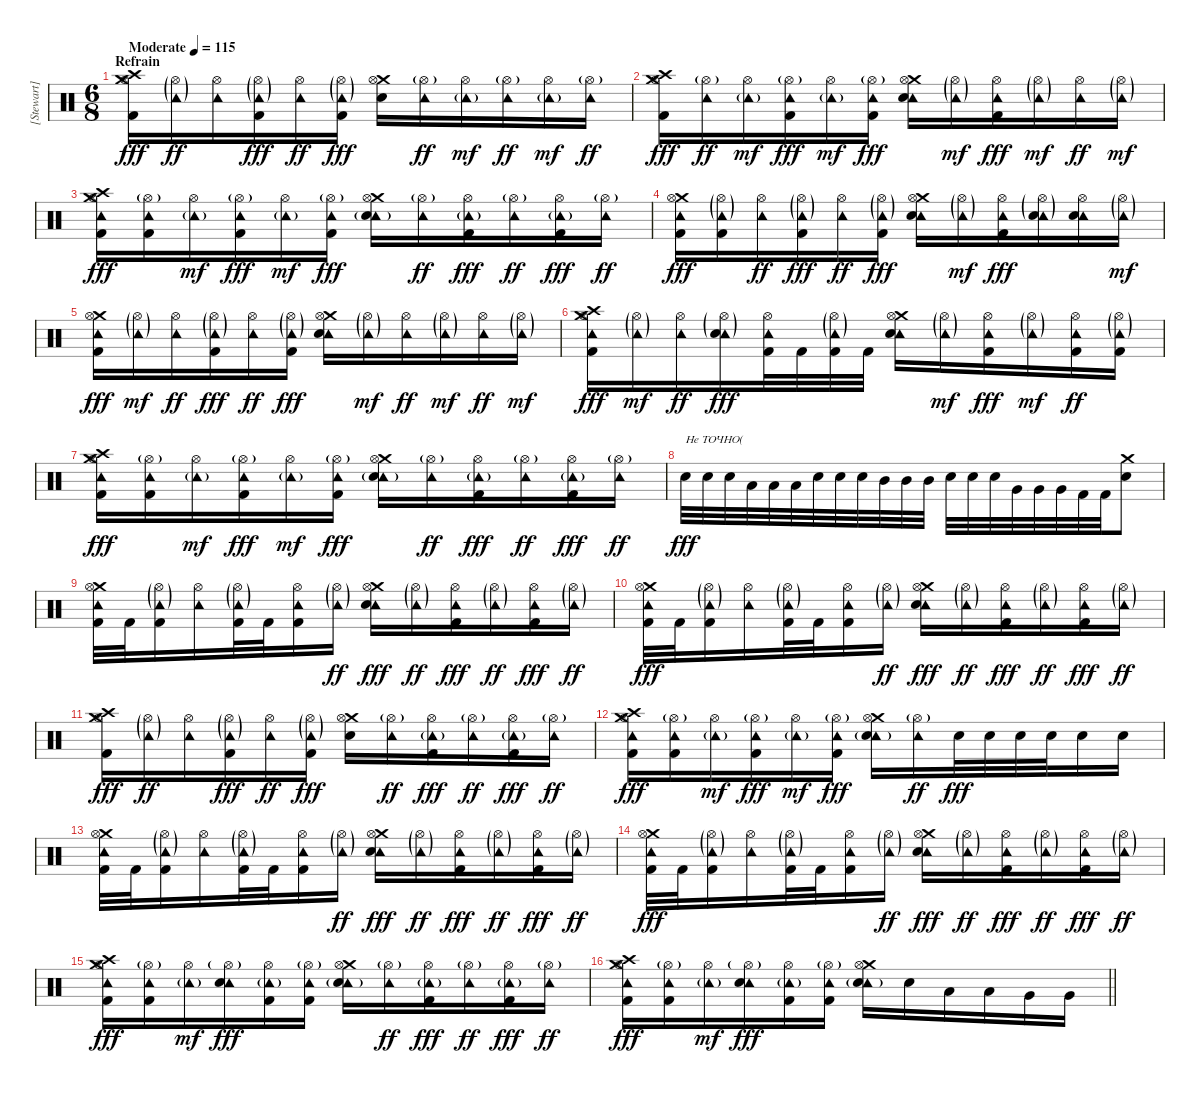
\track ("[Stewart] Drums" "[Stewart] ") {instrument percussion}
\staff {score}
\articulation defaults
\ts (6 8)
\section ("" "Refrain ")
\tempo (115 "Moderate")
\clef neutral
\ks c
("Crash medium (hit)" "Hi-Hat (open)" "Crash high (hit)" "Kick (hit) 2").16{dy fff} ("Hi-Hat (open)"{g} "Tambourine (hit)"{g}).16{dy ff} ("Hi-Hat (open)" "Tambourine (hit)").16 ("Hi-Hat (open)"{g} "Tambourine (hit)"{g} "Kick (hit) 2").16{dy fff} ("Hi-Hat (open)" "Tambourine (hit)").16{dy ff} ("Hi-Hat (open)"{g} "Tambourine (hit)"{g} "Kick (hit) 2").16{dy fff} ("Crash medium (hit)" "Hi-Hat (open)" "Electric Snare (hit)").16 ("Hi-Hat (open)"{g} "Tambourine (hit)").16{dy ff} ("Hi-Hat (open)" "Tambourine (hit)"{g}).16{dy mf} ("Hi-Hat (open)"{g} "Tambourine (hit)").16{dy ff} ("Hi-Hat (open)" "Tambourine (hit)"{g}).16{dy mf} ("Hi-Hat (open)"{g} "Tambourine (hit)").16{dy ff} |
("Crash medium (hit)" "Hi-Hat (open)" "Crash high (hit)" "Kick (hit) 2").16{dy fff} ("Hi-Hat (open)"{g} "Tambourine (hit)").16{dy ff} ("Hi-Hat (open)" "Tambourine (hit)"{g}).16{dy mf} ("Hi-Hat (open)"{g} "Tambourine (hit)" "Kick (hit) 2").16{dy fff} ("Hi-Hat (open)" "Tambourine (hit)"{g}).16{dy mf} ("Hi-Hat (open)"{g} "Tambourine (hit)" "Kick (hit) 2").16{dy fff} ("Crash medium (hit)" "Hi-Hat (open)" "Tambourine (hit)" "Electric Snare (hit)").16 ("Hi-Hat (open)"{g} "Tambourine (hit)"{g}).16{dy mf} ("Hi-Hat (open)" "Tambourine (hit)" "Kick (hit) 2").16{dy fff} ("Hi-Hat (open)"{g} "Tambourine (hit)"{g}).16{dy mf} ("Hi-Hat (open)" "Tambourine (hit)").16{dy ff} ("Hi-Hat (open)"{g} "Tambourine (hit)"{g}).16{dy mf} |
("Crash medium (hit)" "Hi-Hat (open)" "Crash high (hit)" "Tambourine (hit)" "Kick (hit) 2").16{dy fff} ("Hi-Hat (open)"{g} "Tambourine (hit)" "Kick (hit) 2").16 ("Hi-Hat (open)" "Tambourine (hit)"{g}).16{dy mf} ("Hi-Hat (open)"{g} "Tambourine (hit)" "Kick (hit) 2").16{dy fff} ("Hi-Hat (open)" "Tambourine (hit)"{g}).16{dy mf} ("Hi-Hat (open)"{g} "Tambourine (hit)" "Kick (hit) 2").16{dy fff} ("Crash medium (hit)" "Hi-Hat (open)" "Tambourine (hit)"{g} "Electric Snare (hit)").16 ("Hi-Hat (open)"{g} "Tambourine (hit)").16{dy ff} ("Hi-Hat (open)" "Tambourine (hit)"{g} "Kick (hit) 2").16{dy fff} ("Hi-Hat (open)"{g} "Tambourine (hit)").16{dy ff} ("Hi-Hat (open)" "Tambourine (hit)"{g} "Kick (hit) 2").16{dy fff} ("Hi-Hat (open)"{g} "Tambourine (hit)").16{dy ff} |
("Crash medium (hit)" "Hi-Hat (open)" "Tambourine (hit)" "Kick (hit) 2").16{dy fff} ("Hi-Hat (open)"{g} "Tambourine (hit)"{g} "Kick (hit) 2").16 ("Hi-Hat (open)" "Tambourine (hit)").16{dy ff} ("Hi-Hat (open)"{g} "Tambourine (hit)"{g} "Kick (hit) 2").16{dy fff} ("Hi-Hat (open)" "Tambourine (hit)").16{dy ff} ("Hi-Hat (open)"{g} "Tambourine (hit)"{g} "Kick (hit) 2").16{dy fff} ("Crash medium (hit)" "Hi-Hat (open)" "Tambourine (hit)" "Electric Snare (hit)").16 ("Hi-Hat (open)"{g} "Tambourine (hit)"{g}).16{dy mf} ("Hi-Hat (open)" "Tambourine (hit)" "Kick (hit) 2").16{dy fff} ("Hi-Hat (open)"{g} "Tambourine (hit)"{g} "Electric Snare (hit)").16 ("Hi-Hat (open)" "Tambourine (hit)" "Electric Snare (hit)").16 ("Hi-Hat (open)"{g} "Tambourine (hit)"{g}).16{dy mf} |
("Crash medium (hit)" "Hi-Hat (open)" "Tambourine (hit)" "Kick (hit) 2").16{dy fff} ("Hi-Hat (open)"{g} "Tambourine (hit)"{g}).16{dy mf} ("Hi-Hat (open)" "Tambourine (hit)").16{dy ff} ("Hi-Hat (open)"{g} "Tambourine (hit)"{g} "Kick (hit) 2").16{dy fff} ("Hi-Hat (open)" "Tambourine (hit)").16{dy ff} ("Hi-Hat (open)"{g} "Tambourine (hit)"{g} "Kick (hit) 2").16{dy fff} ("Crash medium (hit)" "Hi-Hat (open)" "Tambourine (hit)" "Electric Snare (hit)").16 ("Hi-Hat (open)"{g} "Tambourine (hit)"{g}).16{dy mf} ("Hi-Hat (open)" "Tambourine (hit)").16{dy ff} ("Hi-Hat (open)"{g} "Tambourine (hit)"{g}).16{dy mf} ("Hi-Hat (open)" "Tambourine (hit)").16{dy ff} ("Hi-Hat (open)"{g} "Tambourine (hit)"{g}).16{dy mf} |
("Crash medium (hit)" "Hi-Hat (open)" "Crash high (hit)" "Tambourine (hit)" "Kick (hit) 2").16{dy fff} ("Hi-Hat (open)"{g} "Tambourine (hit)"{g}).16{dy mf} ("Hi-Hat (open)" "Tambourine (hit)").16{dy ff} ("Hi-Hat (open)"{g} "Tambourine (hit)"{g} "Electric Snare (hit)").16{dy fff} ("Hi-Hat (open)" "Tambourine (hit)" "Kick (hit) 2").32 "Kick (hit) 2".32 ("Hi-Hat (open)"{g} "Tambourine (hit)"{g} "Kick (hit) 2").32 "Kick (hit) 2".32 ("Crash medium (hit)" "Hi-Hat (open)" "Tambourine (hit)" "Electric Snare (hit)").16 ("Hi-Hat (open)"{g} "Tambourine (hit)"{g}).16{dy mf} ("Hi-Hat (open)" "Tambourine (hit)" "Kick (hit) 2").16{dy fff} ("Hi-Hat (open)"{g} "Tambourine (hit)"{g}).16{dy mf} ("Hi-Hat (open)" "Tambourine (hit)" "Kick (hit) 2").16{dy ff} ("Hi-Hat (open)"{g} "Tambourine (hit)"{g} "Kick (hit) 2").16 |
("Crash medium (hit)" "Hi-Hat (open)" "Crash high (hit)" "Tambourine (hit)" "Kick (hit) 2").16{dy fff} ("Hi-Hat (open)"{g} "Tambourine (hit)" "Kick (hit) 2").16 ("Hi-Hat (open)" "Tambourine (hit)"{g}).16{dy mf} ("Hi-Hat (open)"{g} "Tambourine (hit)" "Kick (hit) 2").16{dy fff} ("Hi-Hat (open)" "Tambourine (hit)"{g}).16{dy mf} ("Hi-Hat (open)"{g} "Tambourine (hit)" "Kick (hit) 2").16{dy fff} ("Crash medium (hit)" "Hi-Hat (open)" "Tambourine (hit)"{g} "Electric Snare (hit)").16 ("Hi-Hat (open)"{g} "Tambourine (hit)").16{dy ff} ("Hi-Hat (open)" "Tambourine (hit)"{g} "Kick (hit) 2").16{dy fff} ("Hi-Hat (open)"{g} "Tambourine (hit)").16{dy ff} ("Hi-Hat (open)" "Tambourine (hit)"{g} "Kick (hit) 2").16{dy fff} ("Hi-Hat (open)"{g} "Tambourine (hit)").16{dy ff} |
"Electric Snare (hit)".32{txt "Не ТОЧНО(" dy fff} "Electric Snare (hit)".32 "Electric Snare (hit)".32 "Low Tom (hit)".32 "Low Tom (hit)".32 "Low Tom (hit)".32 "Electric Snare (hit)".32 "Electric Snare (hit)".32 "Electric Snare (hit)".32 "Mid Tom (hit)".32 "Mid Tom (hit)".32 "Mid Tom (hit)".32 "Electric Snare (hit)".32 "Electric Snare (hit)".32 "Electric Snare (hit)".32 "Very Low Tom (hit)".32 "Very Low Tom (hit)".32 "Very Low Tom (hit)".32 "Kick (hit) 2".32 "Kick (hit) 2".32 ("Crash medium (hit)" "Electric Snare (hit)").8 |
("Crash medium (hit)" "Hi-Hat (open)" "Tambourine (hit)" "Kick (hit) 2").32 "Kick (hit) 2".32 ("Hi-Hat (open)"{g} "Tambourine (hit)"{g} "Kick (hit) 2").16 ("Hi-Hat (open)" "Tambourine (hit)").16 ("Hi-Hat (open)"{g} "Tambourine (hit)"{g} "Kick (hit) 2").32 "Kick (hit) 2".32 ("Hi-Hat (open)" "Tambourine (hit)" "Kick (hit) 2").16 ("Hi-Hat (open)"{g} "Tambourine (hit)"{g}).16{dy ff} ("Crash medium (hit)" "Hi-Hat (open)" "Tambourine (hit)" "Electric Snare (hit)").16{dy fff} ("Hi-Hat (open)"{g} "Tambourine (hit)"{g}).16{dy ff} ("Hi-Hat (open)" "Tambourine (hit)" "Kick (hit) 2").16{dy fff} ("Hi-Hat (open)"{g} "Tambourine (hit)"{g}).16{dy ff} ("Hi-Hat (open)" "Tambourine (hit)" "Kick (hit) 2").16{dy fff} ("Hi-Hat (open)"{g} "Tambourine (hit)"{g}).16{dy ff} |
("Crash medium (hit)" "Hi-Hat (open)" "Tambourine (hit)" "Kick (hit) 2").32{dy fff} "Kick (hit) 2".32 ("Hi-Hat (open)"{g} "Tambourine (hit)"{g} "Kick (hit) 2").16 ("Hi-Hat (open)" "Tambourine (hit)").16 ("Hi-Hat (open)"{g} "Tambourine (hit)"{g} "Kick (hit) 2").32 "Kick (hit) 2".32 ("Hi-Hat (open)" "Tambourine (hit)" "Kick (hit) 2").16 ("Hi-Hat (open)"{g} "Tambourine (hit)"{g}).16{dy ff} ("Crash medium (hit)" "Hi-Hat (open)" "Tambourine (hit)" "Electric Snare (hit)").16{dy fff} ("Hi-Hat (open)"{g} "Tambourine (hit)"{g}).16{dy ff} ("Hi-Hat (open)" "Tambourine (hit)" "Kick (hit) 2").16{dy fff} ("Hi-Hat (open)"{g} "Tambourine (hit)"{g}).16{dy ff} ("Hi-Hat (open)" "Tambourine (hit)" "Kick (hit) 2").16{dy fff} ("Hi-Hat (open)"{g} "Tambourine (hit)"{g}).16{dy ff} |
("Crash medium (hit)" "Hi-Hat (open)" "Crash high (hit)" "Kick (hit) 2").16{dy fff} ("Hi-Hat (open)"{g} "Tambourine (hit)"{g}).16{dy ff} ("Hi-Hat (open)" "Tambourine (hit)").16 ("Hi-Hat (open)"{g} "Tambourine (hit)"{g} "Kick (hit) 2").16{dy fff} ("Hi-Hat (open)" "Tambourine (hit)").16{dy ff} ("Hi-Hat (open)"{g} "Tambourine (hit)"{g} "Kick (hit) 2").16{dy fff} ("Crash medium (hit)" "Hi-Hat (open)" "Electric Snare (hit)").16 ("Hi-Hat (open)"{g} "Tambourine (hit)").16{dy ff} ("Hi-Hat (open)" "Tambourine (hit)"{g} "Kick (hit) 2").16{dy fff} ("Hi-Hat (open)"{g} "Tambourine (hit)").16{dy ff} ("Hi-Hat (open)" "Tambourine (hit)"{g} "Kick (hit) 2").16{dy fff} ("Hi-Hat (open)"{g} "Tambourine (hit)").16{dy ff} |
("Crash medium (hit)" "Hi-Hat (open)" "Crash high (hit)" "Tambourine (hit)" "Kick (hit) 2").16{dy fff} ("Hi-Hat (open)"{g} "Tambourine (hit)" "Kick (hit) 2").16 ("Hi-Hat (open)" "Tambourine (hit)"{g}).16{dy mf} ("Hi-Hat (open)"{g} "Tambourine (hit)" "Kick (hit) 2").16{dy fff} ("Hi-Hat (open)" "Tambourine (hit)"{g}).16{dy mf} ("Hi-Hat (open)"{g} "Tambourine (hit)" "Kick (hit) 2").16{dy fff} ("Crash medium (hit)" "Hi-Hat (open)" "Tambourine (hit)"{g} "Electric Snare (hit)").16 ("Hi-Hat (open)"{g} "Tambourine (hit)").16{dy ff} "Electric Snare (hit)".32{dy fff} "Electric Snare (hit)".32 "Electric Snare (hit)".32 "Electric Snare (hit)".32 "Electric Snare (hit)".16 "Electric Snare (hit)".16 |
("Crash medium (hit)" "Hi-Hat (open)" "Tambourine (hit)" "Kick (hit) 2").32 "Kick (hit) 2".32 ("Hi-Hat (open)"{g} "Tambourine (hit)"{g} "Kick (hit) 2").16 ("Hi-Hat (open)" "Tambourine (hit)").16 ("Hi-Hat (open)"{g} "Tambourine (hit)"{g} "Kick (hit) 2").32 "Kick (hit) 2".32 ("Hi-Hat (open)" "Tambourine (hit)" "Kick (hit) 2").16 ("Hi-Hat (open)"{g} "Tambourine (hit)"{g}).16{dy ff} ("Crash medium (hit)" "Hi-Hat (open)" "Tambourine (hit)" "Electric Snare (hit)").16{dy fff} ("Hi-Hat (open)"{g} "Tambourine (hit)"{g}).16{dy ff} ("Hi-Hat (open)" "Tambourine (hit)" "Kick (hit) 2").16{dy fff} ("Hi-Hat (open)"{g} "Tambourine (hit)"{g}).16{dy ff} ("Hi-Hat (open)" "Tambourine (hit)" "Kick (hit) 2").16{dy fff} ("Hi-Hat (open)"{g} "Tambourine (hit)"{g}).16{dy ff} |
("Crash medium (hit)" "Hi-Hat (open)" "Tambourine (hit)" "Kick (hit) 2").32{dy fff} "Kick (hit) 2".32 ("Hi-Hat (open)"{g} "Tambourine (hit)"{g} "Kick (hit) 2").16 ("Hi-Hat (open)" "Tambourine (hit)").16 ("Hi-Hat (open)"{g} "Tambourine (hit)"{g} "Kick (hit) 2").32 "Kick (hit) 2".32 ("Hi-Hat (open)" "Tambourine (hit)" "Kick (hit) 2").16 ("Hi-Hat (open)"{g} "Tambourine (hit)"{g}).16{dy ff} ("Crash medium (hit)" "Hi-Hat (open)" "Tambourine (hit)" "Electric Snare (hit)").16{dy fff} ("Hi-Hat (open)"{g} "Tambourine (hit)"{g}).16{dy ff} ("Hi-Hat (open)" "Tambourine (hit)" "Kick (hit) 2").16{dy fff} ("Hi-Hat (open)"{g} "Tambourine (hit)"{g}).16{dy ff} ("Hi-Hat (open)" "Tambourine (hit)" "Kick (hit) 2").16{dy fff} ("Hi-Hat (open)"{g} "Tambourine (hit)"{g}).16{dy ff} |
("Crash medium (hit)" "Hi-Hat (open)" "Crash high (hit)" "Tambourine (hit)" "Kick (hit) 2").16{dy fff} ("Hi-Hat (open)"{g} "Tambourine (hit)" "Kick (hit) 2").16 ("Hi-Hat (open)" "Tambourine (hit)"{g}).16{dy mf} ("Hi-Hat (open)"{g} "Tambourine (hit)" "Electric Snare (hit)").16{dy fff} ("Hi-Hat (open)" "Tambourine (hit)"{g} "Kick (hit) 2").16 ("Hi-Hat (open)"{g} "Tambourine (hit)" "Kick (hit) 2").16 ("Crash medium (hit)" "Hi-Hat (open)" "Tambourine (hit)"{g} "Electric Snare (hit)").16 ("Hi-Hat (open)"{g} "Tambourine (hit)").16{dy ff} ("Hi-Hat (open)" "Tambourine (hit)"{g} "Kick (hit) 2").16{dy fff} ("Hi-Hat (open)"{g} "Tambourine (hit)").16{dy ff} ("Hi-Hat (open)" "Tambourine (hit)"{g} "Kick (hit) 2").16{dy fff} ("Hi-Hat (open)"{g} "Tambourine (hit)").16{dy ff} |
\barLineRight lightlight
("Crash medium (hit)" "Hi-Hat (open)" "Crash high (hit)" "Tambourine (hit)" "Kick (hit) 2").16{dy fff} ("Hi-Hat (open)"{g} "Tambourine (hit)" "Kick (hit) 2").16 ("Hi-Hat (open)" "Tambourine (hit)"{g}).16{dy mf} ("Hi-Hat (open)"{g} "Tambourine (hit)" "Electric Snare (hit)").16{dy fff} ("Hi-Hat (open)" "Tambourine (hit)"{g} "Kick (hit) 2").16 ("Hi-Hat (open)"{g} "Tambourine (hit)" "Kick (hit) 2").16 ("Crash medium (hit)" "Hi-Hat (open)" "Tambourine (hit)"{g} "Electric Snare (hit)").16 "Electric Snare (hit)".16 "Low Tom (hit)".16 "Low Tom (hit)".16 "Very Low Tom (hit)".16 "Very Low Tom (hit)".16
